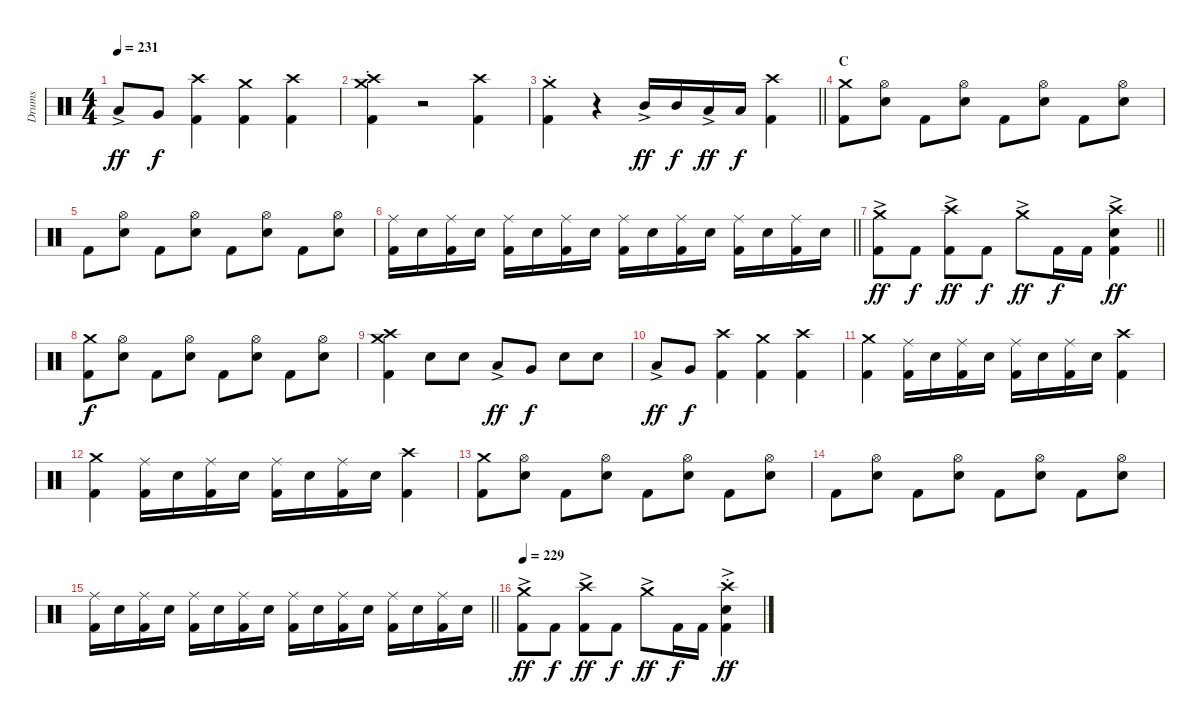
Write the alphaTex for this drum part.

\track ("Drums" "Drums") {instrument percussion}
\staff {score}
\articulation defaults
\ts (4 4)
\tempo 231
\clef neutral
\ks c "Low Tom (hit)"{ac}.8{dy ff} "Very Low Tom (hit)".8{dy f}
("Crash high (hit)" "Kick (hit) 2").4 ("Crash medium (hit)" "Kick (hit) 2").4 ("Crash high (hit)" "Kick (hit) 2").4 |
("Crash medium (hit)"{st} "Crash high (hit)"{st} "Kick (hit) 2").4 r.2{volume 0} ("Crash high (hit)" "Kick (hit) 2").4{volume 14} |
\barLineRight lightlight
("Crash medium (hit)"{st} "Kick (hit) 2").4 r.4{volume 0} "Mid Tom (hit)"{ac}.16{dy ff volume 14} "Mid Tom (hit)".16{dy f} "Low Tom (hit)"{ac}.16{dy ff} "Low Tom (hit)".16{dy f} ("Crash high (hit)" "Kick (hit) 2").4 |
\section ("" "C")
("Crash medium (hit)" "Kick (hit) 2").8 ("Hi-Hat (open)" "Electric Snare (hit)").8 "Kick (hit) 2".8 ("Hi-Hat (open)" "Electric Snare (hit)").8 "Kick (hit) 2".8 ("Hi-Hat (open)" "Electric Snare (hit)").8 "Kick (hit) 2".8 ("Hi-Hat (open)" "Electric Snare (hit)").8 |
"Kick (hit) 2".8 ("Hi-Hat (open)" "Electric Snare (hit)").8 "Kick (hit) 2".8 ("Hi-Hat (open)" "Electric Snare (hit)").8 "Kick (hit) 2".8 ("Hi-Hat (open)" "Electric Snare (hit)").8 "Kick (hit) 2".8 ("Hi-Hat (open)" "Electric Snare (hit)").8 |
\barLineRight lightlight
("Ride (middle)" "Kick (hit) 2").16 "Electric Snare (hit)".16 ("Ride (middle)" "Kick (hit) 2").16 "Electric Snare (hit)".16 ("Ride (middle)" "Kick (hit) 2").16 "Electric Snare (hit)".16 ("Ride (middle)" "Kick (hit) 2").16 "Electric Snare (hit)".16 ("Ride (middle)" "Kick (hit) 2").16 "Electric Snare (hit)".16 ("Ride (middle)" "Kick (hit) 2").16 "Electric Snare (hit)".16 ("Ride (middle)" "Kick (hit) 2").16 "Electric Snare (hit)".16 ("Ride (middle)" "Kick (hit) 2").16 "Electric Snare (hit)".16 |
\section ("" "")
\barLineRight lightlight
("Crash medium (hit)"{ac} "Kick (hit) 2").8{dy ff} "Kick (hit) 2".8{dy f} ("Crash high (hit)"{ac} "Kick (hit) 2").8{dy ff} "Kick (hit) 2".8{dy f} "Crash medium (hit)"{ac}.8{dy ff} "Kick (hit) 2".16{dy f} "Kick (hit) 2".16 ("Crash high (hit)"{ac} "Electric Snare (hit)" "Kick (hit) 2").4{dy ff} |
\section ("" "")
("Crash medium (hit)" "Kick (hit) 2").8{dy f} ("Hi-Hat (open)" "Electric Snare (hit)").8 "Kick (hit) 2".8 ("Hi-Hat (open)" "Electric Snare (hit)").8 "Kick (hit) 2".8 ("Hi-Hat (open)" "Electric Snare (hit)").8 "Kick (hit) 2".8 ("Hi-Hat (open)" "Electric Snare (hit)").8 |
("Crash medium (hit)" "Crash high (hit)" "Kick (hit) 2").4 "Electric Snare (hit)".8 "Electric Snare (hit)".8 "Low Tom (hit)"{ac}.8{dy ff} "Very Low Tom (hit)".8{dy f} "Electric Snare (hit)".8 "Electric Snare (hit)".8 |
"Low Tom (hit)"{ac}.8{dy ff} "Very Low Tom (hit)".8{dy f} ("Crash high (hit)" "Kick (hit) 2").4 ("Crash medium (hit)" "Kick (hit) 2").4 ("Crash high (hit)" "Kick (hit) 2").4 |
("Crash medium (hit)" "Kick (hit) 2").4 ("Ride (middle)" "Kick (hit) 2").16 "Electric Snare (hit)".16 ("Ride (middle)" "Kick (hit) 2").16 "Electric Snare (hit)".16 ("Ride (middle)" "Kick (hit) 2").16 "Electric Snare (hit)".16 ("Ride (middle)" "Kick (hit) 2").16 "Electric Snare (hit)".16 ("Crash high (hit)" "Kick (hit) 2").4 |
("Crash medium (hit)" "Kick (hit) 2").4 ("Ride (middle)" "Kick (hit) 2").16 "Electric Snare (hit)".16 ("Ride (middle)" "Kick (hit) 2").16 "Electric Snare (hit)".16 ("Ride (middle)" "Kick (hit) 2").16 "Electric Snare (hit)".16 ("Ride (middle)" "Kick (hit) 2").16 "Electric Snare (hit)".16 ("Crash high (hit)" "Kick (hit) 2").4 |
("Crash medium (hit)" "Kick (hit) 2").8 ("Hi-Hat (open)" "Electric Snare (hit)").8 "Kick (hit) 2".8 ("Hi-Hat (open)" "Electric Snare (hit)").8 "Kick (hit) 2".8 ("Hi-Hat (open)" "Electric Snare (hit)").8 "Kick (hit) 2".8 ("Hi-Hat (open)" "Electric Snare (hit)").8 |
"Kick (hit) 2".8 ("Hi-Hat (open)" "Electric Snare (hit)").8 "Kick (hit) 2".8 ("Hi-Hat (open)" "Electric Snare (hit)").8 "Kick (hit) 2".8 ("Hi-Hat (open)" "Electric Snare (hit)").8 "Kick (hit) 2".8 ("Hi-Hat (open)" "Electric Snare (hit)").8 |
\barLineRight lightlight
("Ride (middle)" "Kick (hit) 2").16 "Electric Snare (hit)".16 ("Ride (middle)" "Kick (hit) 2").16 "Electric Snare (hit)".16 ("Ride (middle)" "Kick (hit) 2").16 "Electric Snare (hit)".16 ("Ride (middle)" "Kick (hit) 2").16 "Electric Snare (hit)".16 ("Ride (middle)" "Kick (hit) 2").16 "Electric Snare (hit)".16 ("Ride (middle)" "Kick (hit) 2").16 "Electric Snare (hit)".16 ("Ride (middle)" "Kick (hit) 2").16 "Electric Snare (hit)".16 ("Ride (middle)" "Kick (hit) 2").16 "Electric Snare (hit)".16 |
\section ("" "")
\tempo 229
("Crash medium (hit)"{ac} "Kick (hit) 2").8{dy ff} "Kick (hit) 2".8{dy f} ("Crash high (hit)"{ac} "Kick (hit) 2").8{dy ff} "Kick (hit) 2".8{dy f} "Crash medium (hit)"{ac}.8{dy ff} "Kick (hit) 2".16{dy f} "Kick (hit) 2".16 ("Crash high (hit)"{ac st} "Electric Snare (hit)" "Kick (hit) 2").4{dy ff}
